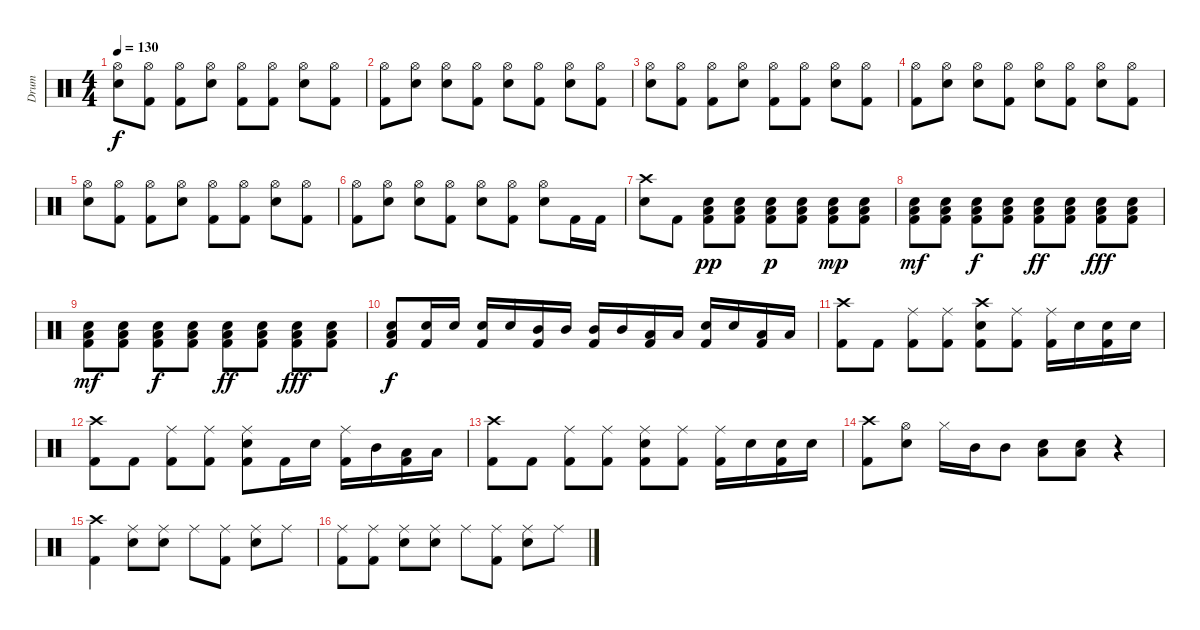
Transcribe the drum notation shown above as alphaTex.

\track ("Drum" "Drum") {instrument percussion}
\staff {score}
\articulation defaults
\ts (4 4)
\tempo 130
\clef neutral
\ks c
("Hi-Hat (open)" "Electric Snare (hit)").8{dy f} ("Hi-Hat (open)" "Kick (hit) 2").8 ("Hi-Hat (open)" "Kick (hit) 2").8 ("Hi-Hat (open)" "Electric Snare (hit)").8 ("Hi-Hat (open)" "Kick (hit) 2").8 ("Hi-Hat (open)" "Kick (hit) 2").8 ("Hi-Hat (open)" "Electric Snare (hit)").8 ("Hi-Hat (open)" "Kick (hit) 2").8 |
("Hi-Hat (open)" "Kick (hit) 2").8 ("Hi-Hat (open)" "Electric Snare (hit)").8 ("Hi-Hat (open)" "Electric Snare (hit)").8 ("Hi-Hat (open)" "Kick (hit) 2").8 ("Hi-Hat (open)" "Electric Snare (hit)").8 ("Hi-Hat (open)" "Kick (hit) 2").8 ("Hi-Hat (open)" "Electric Snare (hit)").8 ("Hi-Hat (open)" "Kick (hit) 2").8 |
("Hi-Hat (open)" "Electric Snare (hit)").8 ("Hi-Hat (open)" "Kick (hit) 2").8 ("Hi-Hat (open)" "Kick (hit) 2").8 ("Hi-Hat (open)" "Electric Snare (hit)").8 ("Hi-Hat (open)" "Kick (hit) 2").8 ("Hi-Hat (open)" "Kick (hit) 2").8 ("Hi-Hat (open)" "Electric Snare (hit)").8 ("Hi-Hat (open)" "Kick (hit) 2").8 |
("Hi-Hat (open)" "Kick (hit) 2").8 ("Hi-Hat (open)" "Electric Snare (hit)").8 ("Hi-Hat (open)" "Electric Snare (hit)").8 ("Hi-Hat (open)" "Kick (hit) 2").8 ("Hi-Hat (open)" "Electric Snare (hit)").8 ("Hi-Hat (open)" "Kick (hit) 2").8 ("Hi-Hat (open)" "Electric Snare (hit)").8 ("Hi-Hat (open)" "Kick (hit) 2").8 |
("Hi-Hat (open)" "Electric Snare (hit)").8 ("Hi-Hat (open)" "Kick (hit) 2").8 ("Hi-Hat (open)" "Kick (hit) 2").8 ("Hi-Hat (open)" "Electric Snare (hit)").8 ("Hi-Hat (open)" "Kick (hit) 2").8 ("Hi-Hat (open)" "Kick (hit) 2").8 ("Hi-Hat (open)" "Electric Snare (hit)").8 ("Hi-Hat (open)" "Kick (hit) 2").8 |
("Hi-Hat (open)" "Kick (hit) 2").8 ("Hi-Hat (open)" "Electric Snare (hit)").8 ("Hi-Hat (open)" "Electric Snare (hit)").8 ("Hi-Hat (open)" "Kick (hit) 2").8 ("Hi-Hat (open)" "Electric Snare (hit)").8 ("Hi-Hat (open)" "Kick (hit) 2").8 ("Hi-Hat (open)" "Electric Snare (hit)").8 "Kick (hit) 2".16 "Kick (hit) 2".16 |
("Crash high (hit)" "Electric Snare (hit)").8 "Kick (hit) 2".8 ("Electric Snare (hit)" "Low Floor Tom (hit)" "Kick (hit) 2").8{dy pp} ("Electric Snare (hit)" "Low Floor Tom (hit)" "Kick (hit) 2").8 ("Electric Snare (hit)" "Low Floor Tom (hit)" "Kick (hit) 2").8{dy p} ("Electric Snare (hit)" "Low Floor Tom (hit)" "Kick (hit) 2").8 ("Electric Snare (hit)" "Low Floor Tom (hit)" "Kick (hit) 2").8{dy mp} ("Electric Snare (hit)" "Low Floor Tom (hit)" "Kick (hit) 2").8 |
("Electric Snare (hit)" "Low Floor Tom (hit)" "Kick (hit) 2").8{dy mf} ("Electric Snare (hit)" "Low Floor Tom (hit)" "Kick (hit) 2").8 ("Electric Snare (hit)" "Low Floor Tom (hit)" "Kick (hit) 2").8{dy f} ("Electric Snare (hit)" "Low Floor Tom (hit)" "Kick (hit) 2").8 ("Electric Snare (hit)" "Low Floor Tom (hit)" "Kick (hit) 2").8{dy ff} ("Electric Snare (hit)" "Low Floor Tom (hit)" "Kick (hit) 2").8 ("Electric Snare (hit)" "Low Floor Tom (hit)" "Kick (hit) 2").8{dy fff} ("Electric Snare (hit)" "Low Floor Tom (hit)" "Kick (hit) 2").8 |
("Electric Snare (hit)" "Low Floor Tom (hit)" "Kick (hit) 2").8{dy mf} ("Electric Snare (hit)" "Low Floor Tom (hit)" "Kick (hit) 2").8 ("Electric Snare (hit)" "Low Floor Tom (hit)" "Kick (hit) 2").8{dy f} ("Electric Snare (hit)" "Low Floor Tom (hit)" "Kick (hit) 2").8 ("Electric Snare (hit)" "Low Floor Tom (hit)" "Kick (hit) 2").8{dy ff} ("Electric Snare (hit)" "Low Floor Tom (hit)" "Kick (hit) 2").8 ("Electric Snare (hit)" "Low Floor Tom (hit)" "Kick (hit) 2").8{dy fff} ("Electric Snare (hit)" "Low Floor Tom (hit)" "Kick (hit) 2").8 |
("Electric Snare (hit)" "Low Floor Tom (hit)" "Kick (hit) 2").8{dy f} ("Electric Snare (hit)" "Kick (hit) 2").16 "Electric Snare (hit)".16 ("Electric Snare (hit)" "Kick (hit) 2").16 "Electric Snare (hit)".16 ("Mid Tom (hit)" "Kick (hit) 2").16 "Mid Tom (hit)".16 ("Mid Tom (hit)" "Kick (hit) 2").16 "Mid Tom (hit)".16 ("Low Tom (hit)" "Kick (hit) 2").16 "Low Tom (hit)".16 ("Electric Snare (hit)" "Kick (hit) 2").16 "Electric Snare (hit)".16 ("Low Tom (hit)" "Kick (hit) 2").16 "Low Tom (hit)".16 |
("Crash high (hit)" "Kick (hit) 2").8 "Kick (hit) 2".8 ("Ride (middle)" "Kick (hit) 2").8 ("Ride (middle)" "Kick (hit) 2").8 ("Crash high (hit)" "Electric Snare (hit)" "Kick (hit) 2").8 ("Ride (middle)" "Kick (hit) 2").8 ("Ride (middle)" "Kick (hit) 2").16 "Electric Snare (hit)".16 ("Electric Snare (hit)" "Kick (hit) 2").16 "Electric Snare (hit)".16 |
("Crash high (hit)" "Kick (hit) 2").8 "Kick (hit) 2".8 ("Ride (middle)" "Kick (hit) 2").8 ("Ride (middle)" "Kick (hit) 2").8 ("Ride (middle)" "Electric Snare (hit)" "Kick (hit) 2").8 "Kick (hit) 2".16 "Electric Snare (hit)".16 ("Ride (middle)" "Kick (hit) 2").16 "Mid Tom (hit)".16 ("Low Tom (hit)" "Kick (hit) 2").16 "Low Tom (hit)".16 |
("Crash high (hit)" "Kick (hit) 2").8 "Kick (hit) 2".8 ("Ride (middle)" "Kick (hit) 2").8 ("Ride (middle)" "Kick (hit) 2").8 ("Ride (middle)" "Electric Snare (hit)" "Kick (hit) 2").8 ("Ride (middle)" "Kick (hit) 2").8 ("Ride (middle)" "Kick (hit) 2").16 "Electric Snare (hit)".16 ("Electric Snare (hit)" "Kick (hit) 2").16 "Electric Snare (hit)".16 |
("Crash high (hit)" "Kick (hit) 2").8 ("Hi-Hat (open)" "Electric Snare (hit)").8 "Hi-Hat (closed)".16 "Mid Tom (hit)".16 "Mid Tom (hit)".8 ("Electric Snare (hit)" "Low Floor Tom (hit)").8 ("Electric Snare (hit)" "Low Floor Tom (hit)").8 r.4 |
("Crash high (hit)" "Kick (hit) 2").4 ("Ride (middle)" "Electric Snare (hit)").8 ("Ride (middle)" "Electric Snare (hit)").8 "Ride (middle)".8 ("Ride (middle)" "Kick (hit) 2").8 ("Ride (middle)" "Electric Snare (hit)").8 "Ride (middle)".8 |
("Ride (middle)" "Kick (hit) 2").8 ("Ride (middle)" "Kick (hit) 2").8 ("Ride (middle)" "Electric Snare (hit)").8 ("Ride (middle)" "Electric Snare (hit)").8 "Ride (middle)".8 ("Ride (middle)" "Kick (hit) 2").8 ("Ride (middle)" "Electric Snare (hit)").8 "Ride (middle)".8
